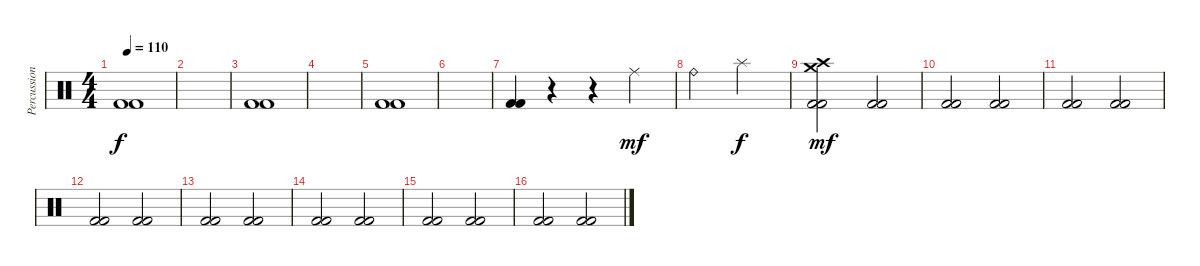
\track ("Percussion" "Percussion") {instrument percussion}
\staff {score}
\articulation defaults
\ts (4 4)
\tempo 110
\clef neutral
\ks c
("Kick (hit) 2" "Kick (hit) 2").1{dy f} |
|
("Kick (hit) 2" "Kick (hit) 2").1 |
|
("Kick (hit) 2" "Kick (hit) 2").1 |
|
("Kick (hit) 2" "Kick (hit) 2").4 r.4 r.4 "Ride (middle)".4{dy mf} |
"Ride (bell)".2 "Splash (hit)".2{dy f} |
("Crash medium (hit)" "Crash high (hit)" "Kick (hit) 2" "Kick (hit) 2").2{dy mf} ("Kick (hit) 2" "Kick (hit) 2").2 |
("Kick (hit) 2" "Kick (hit) 2").2 ("Kick (hit) 2" "Kick (hit) 2").2 |
("Kick (hit) 2" "Kick (hit) 2").2 ("Kick (hit) 2" "Kick (hit) 2").2 |
("Kick (hit) 2" "Kick (hit) 2").2 ("Kick (hit) 2" "Kick (hit) 2").2 |
("Kick (hit) 2" "Kick (hit) 2").2 ("Kick (hit) 2" "Kick (hit) 2").2 |
("Kick (hit) 2" "Kick (hit) 2").2 ("Kick (hit) 2" "Kick (hit) 2").2 |
("Kick (hit) 2" "Kick (hit) 2").2 ("Kick (hit) 2" "Kick (hit) 2").2 |
("Kick (hit) 2" "Kick (hit) 2").2 ("Kick (hit) 2" "Kick (hit) 2").2
